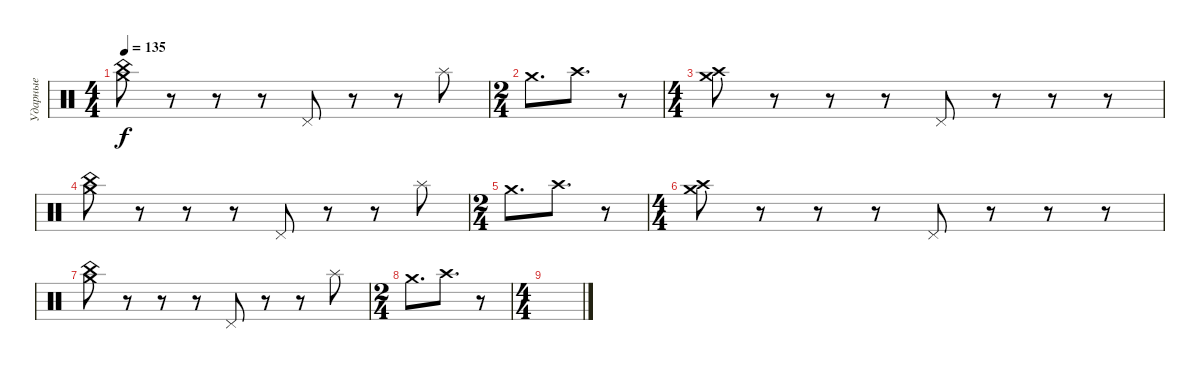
\track ("Ударные" "Ударные") {instrument percussion}
\staff {score}
\articulation defaults
\ts (4 4)
\tempo 135
\clef neutral
\ks c
("China (hit)" "Crash medium (hit)").8{dy f} r.8 r.8 r.8 "Pedal Hi-Hat (hit)".8 r.8 r.8 "Splash (hit)".8 |
\ts (2 4)
"Crash medium (hit)".8{d} "Crash high (hit)".8{d} r.8 |
\ts (4 4)
("Crash medium (hit)" "Crash high (hit)").8 r.8 r.8 r.8 "Pedal Hi-Hat (hit)".8 r.8 r.8 r.8 |
("China (hit)" "Crash medium (hit)").8 r.8 r.8 r.8 "Pedal Hi-Hat (hit)".8 r.8 r.8 "Splash (hit)".8 |
\ts (2 4)
"Crash medium (hit)".8{d} "Crash high (hit)".8{d} r.8 |
\ts (4 4)
("Crash medium (hit)" "Crash high (hit)").8 r.8 r.8 r.8 "Pedal Hi-Hat (hit)".8 r.8 r.8 r.8 |
("China (hit)" "Crash medium (hit)").8 r.8 r.8 r.8 "Pedal Hi-Hat (hit)".8 r.8 r.8 "Splash (hit)".8 |
\ts (2 4)
"Crash medium (hit)".8{d} "Crash high (hit)".8{d} r.8 |
\ts (4 4)
